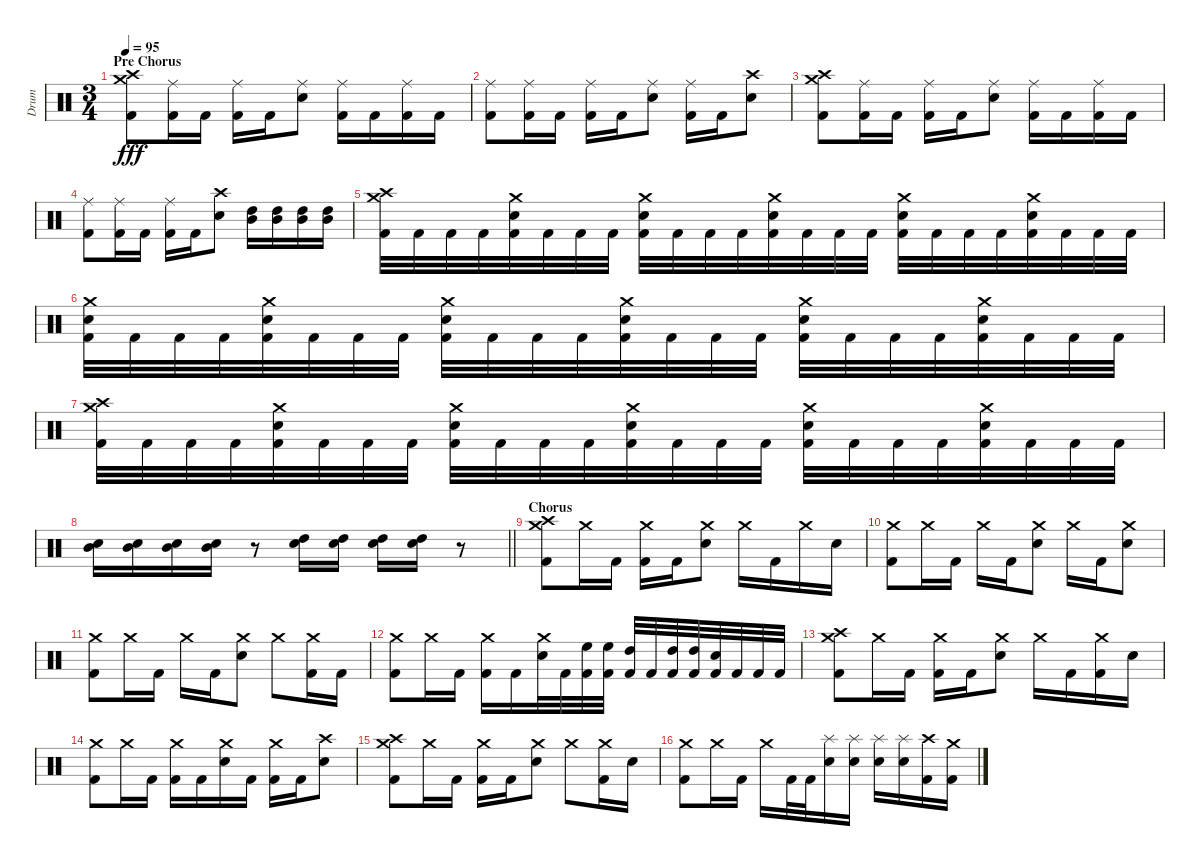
\track ("Drum" "Drum") {instrument percussion}
\staff {score}
\articulation defaults
\ts (3 4)
\section ("" "Pre Chorus")
\tempo 95
\clef neutral
\ks c
("Crash medium (hit)" "Crash high (hit)" "Kick (hit) 2").8{dy fff} ("Ride (middle)" "Kick (hit) 2").16 "Kick (hit) 2".16 ("Ride (middle)" "Kick (hit) 2").16 "Kick (hit) 2".16 ("Ride (middle)" "Electric Snare (hit)").8 ("Ride (middle)" "Kick (hit) 2").16 "Kick (hit) 2".16 ("Ride (middle)" "Kick (hit) 2").16 "Kick (hit) 2".16 |
("Ride (middle)" "Kick (hit) 2").8 ("Ride (middle)" "Kick (hit) 2").16 "Kick (hit) 2".16 ("Ride (middle)" "Kick (hit) 2").16 "Kick (hit) 2".16 ("Ride (middle)" "Electric Snare (hit)").8 ("Ride (middle)" "Kick (hit) 2").16 "Kick (hit) 2".16 ("Crash high (hit)" "Electric Snare (hit)").8 |
("Crash medium (hit)" "Crash high (hit)" "Kick (hit) 2").8 ("Ride (middle)" "Kick (hit) 2").16 "Kick (hit) 2".16 ("Ride (middle)" "Kick (hit) 2").16 "Kick (hit) 2".16 ("Ride (middle)" "Electric Snare (hit)").8 ("Ride (middle)" "Kick (hit) 2").16 "Kick (hit) 2".16 ("Ride (middle)" "Kick (hit) 2").16 "Kick (hit) 2".16 |
("Ride (middle)" "Kick (hit) 2").8 ("Ride (middle)" "Kick (hit) 2").16 "Kick (hit) 2".16 ("Ride (middle)" "Kick (hit) 2").16 "Kick (hit) 2".16 ("Crash high (hit)" "Electric Snare (hit)").8 ("High Tom (hit)" "Mid Tom (hit)").16 ("High Tom (hit)" "Mid Tom (hit)").16 ("High Tom (hit)" "Mid Tom (hit)").16 ("High Tom (hit)" "Mid Tom (hit)").16 |
("Crash medium (hit)" "Crash high (hit)" "Kick (hit) 2").32 "Kick (hit) 2".32 "Kick (hit) 2".32 "Kick (hit) 2".32 ("Crash medium (hit)" "Electric Snare (hit)" "Kick (hit) 2").32 "Kick (hit) 2".32 "Kick (hit) 2".32 "Kick (hit) 2".32 ("Crash medium (hit)" "Electric Snare (hit)" "Kick (hit) 2").32 "Kick (hit) 2".32 "Kick (hit) 2".32 "Kick (hit) 2".32 ("Crash medium (hit)" "Electric Snare (hit)" "Kick (hit) 2").32 "Kick (hit) 2".32 "Kick (hit) 2".32 "Kick (hit) 2".32 ("Crash medium (hit)" "Electric Snare (hit)" "Kick (hit) 2").32 "Kick (hit) 2".32 "Kick (hit) 2".32 "Kick (hit) 2".32 ("Crash medium (hit)" "Electric Snare (hit)" "Kick (hit) 2").32 "Kick (hit) 2".32 "Kick (hit) 2".32 "Kick (hit) 2".32 |
("Crash medium (hit)" "Electric Snare (hit)" "Kick (hit) 2").32 "Kick (hit) 2".32 "Kick (hit) 2".32 "Kick (hit) 2".32 ("Crash medium (hit)" "Electric Snare (hit)" "Kick (hit) 2").32 "Kick (hit) 2".32 "Kick (hit) 2".32 "Kick (hit) 2".32 ("Crash medium (hit)" "Electric Snare (hit)" "Kick (hit) 2").32 "Kick (hit) 2".32 "Kick (hit) 2".32 "Kick (hit) 2".32 ("Crash medium (hit)" "Electric Snare (hit)" "Kick (hit) 2").32 "Kick (hit) 2".32 "Kick (hit) 2".32 "Kick (hit) 2".32 ("Crash medium (hit)" "Electric Snare (hit)" "Kick (hit) 2").32 "Kick (hit) 2".32 "Kick (hit) 2".32 "Kick (hit) 2".32 ("Crash medium (hit)" "Electric Snare (hit)" "Kick (hit) 2").32 "Kick (hit) 2".32 "Kick (hit) 2".32 "Kick (hit) 2".32 |
("Crash medium (hit)" "Crash high (hit)" "Kick (hit) 2").32 "Kick (hit) 2".32 "Kick (hit) 2".32 "Kick (hit) 2".32 ("Crash medium (hit)" "Electric Snare (hit)" "Kick (hit) 2").32 "Kick (hit) 2".32 "Kick (hit) 2".32 "Kick (hit) 2".32 ("Crash medium (hit)" "Electric Snare (hit)" "Kick (hit) 2").32 "Kick (hit) 2".32 "Kick (hit) 2".32 "Kick (hit) 2".32 ("Crash medium (hit)" "Electric Snare (hit)" "Kick (hit) 2").32 "Kick (hit) 2".32 "Kick (hit) 2".32 "Kick (hit) 2".32 ("Crash medium (hit)" "Electric Snare (hit)" "Kick (hit) 2").32 "Kick (hit) 2".32 "Kick (hit) 2".32 "Kick (hit) 2".32 ("Crash medium (hit)" "Electric Snare (hit)" "Kick (hit) 2").32 "Kick (hit) 2".32 "Kick (hit) 2".32 "Kick (hit) 2".32 |
\barLineRight lightlight
("Electric Snare (hit)" "Mid Tom (hit)").16 ("Electric Snare (hit)" "Mid Tom (hit)").16 ("Electric Snare (hit)" "Mid Tom (hit)").16 ("Electric Snare (hit)" "Mid Tom (hit)").16 r.8 ("Electric Snare (hit)" "High Tom (hit)").16 ("Electric Snare (hit)" "High Tom (hit)").16 ("Electric Snare (hit)" "High Tom (hit)").16 ("Electric Snare (hit)" "High Tom (hit)").16 r.8 |
\section ("" "Chorus")
("Crash medium (hit)" "Crash high (hit)" "Kick (hit) 2").8 "Crash medium (hit)".16 "Kick (hit) 2".16 ("Crash medium (hit)" "Kick (hit) 2").16 "Kick (hit) 2".16 ("Crash medium (hit)" "Electric Snare (hit)").8 "Crash medium (hit)".16 "Kick (hit) 2".16 "Crash medium (hit)".16 "Electric Snare (hit)".16 |
("Crash medium (hit)" "Kick (hit) 2").8 "Crash medium (hit)".16 "Kick (hit) 2".16 "Crash medium (hit)".16 "Kick (hit) 2".16 ("Crash medium (hit)" "Electric Snare (hit)").8 "Crash medium (hit)".16 "Kick (hit) 2".16 ("Crash medium (hit)" "Electric Snare (hit)").8 |
("Crash medium (hit)" "Kick (hit) 2").8 "Crash medium (hit)".16 "Kick (hit) 2".16 "Crash medium (hit)".16 "Kick (hit) 2".16 ("Crash medium (hit)" "Electric Snare (hit)").8 "Crash medium (hit)".8 ("Crash medium (hit)" "Kick (hit) 2").16 "Kick (hit) 2".16 |
("Crash medium (hit)" "Kick (hit) 2").8 "Crash medium (hit)".16 "Kick (hit) 2".16 ("Crash medium (hit)" "Kick (hit) 2").16 "Kick (hit) 2".16 ("Crash medium (hit)" "Electric Snare (hit)").32 "Kick (hit) 2".32 ("High Floor Tom (hit)" "Kick (hit) 2").32 ("High Floor Tom (hit)" "Kick (hit) 2").32 ("High Tom (hit)" "Kick (hit) 2").32 "Kick (hit) 2".32 ("High Tom (hit)" "Kick (hit) 2").32 ("High Tom (hit)" "Kick (hit) 2").32 ("Electric Snare (hit)" "Kick (hit) 2").32 "Kick (hit) 2".32 "Kick (hit) 2".32 "Kick (hit) 2".32 |
("Crash medium (hit)" "Crash high (hit)" "Kick (hit) 2").8 "Crash medium (hit)".16 "Kick (hit) 2".16 ("Crash medium (hit)" "Kick (hit) 2").16 "Kick (hit) 2".16 ("Crash medium (hit)" "Electric Snare (hit)").8 "Crash medium (hit)".16 "Kick (hit) 2".16 ("Crash medium (hit)" "Kick (hit) 2").16 "Electric Snare (hit)".16 |
("Crash medium (hit)" "Kick (hit) 2").8 "Crash medium (hit)".16 "Kick (hit) 2".16 ("Crash medium (hit)" "Kick (hit) 2").16 "Kick (hit) 2".16 ("Crash medium (hit)" "Electric Snare (hit)").16 "Kick (hit) 2".16 ("Crash medium (hit)" "Kick (hit) 2").16 "Kick (hit) 2".16 ("Crash high (hit)" "Electric Snare (hit)").8 |
("Crash high (hit)" "Crash medium (hit)" "Kick (hit) 2").8 "Crash medium (hit)".16 "Kick (hit) 2".16 ("Crash medium (hit)" "Kick (hit) 2").16 "Kick (hit) 2".16 ("Crash medium (hit)" "Electric Snare (hit)").8 "Crash medium (hit)".8 ("Crash medium (hit)" "Kick (hit) 2").16 "Electric Snare (hit)".16 |
("Crash medium (hit)" "Kick (hit) 2").8 "Crash medium (hit)".16 "Kick (hit) 2".16 "Crash medium (hit)".16 "Kick (hit) 2".32 "Kick (hit) 2".32 ("Splash (hit)" "Electric Snare (hit)").16 ("Splash (hit)" "Electric Snare (hit)").16 ("Splash (hit)" "Electric Snare (hit)").16 ("Splash (hit)" "Electric Snare (hit)").16 ("Crash high (hit)" "Kick (hit) 2").16 ("Crash medium (hit)" "Kick (hit) 2").16
